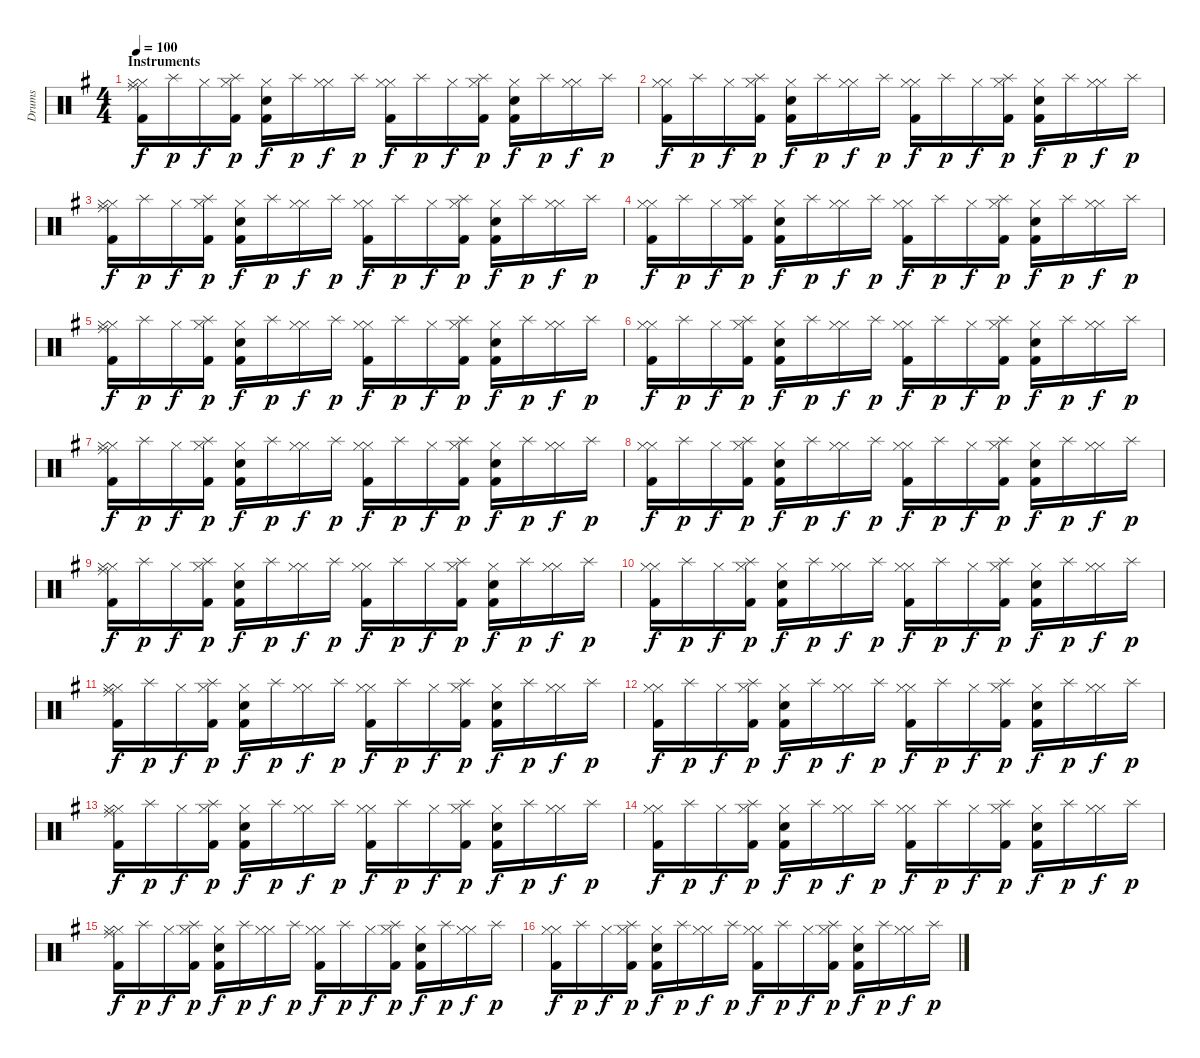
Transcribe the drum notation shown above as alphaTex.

\track ("Drums" "Drums") {instrument percussion}
\staff {score}
\articulation defaults
\ts (4 4)
\section ("" "Instruments")
\tempo 100
\clef neutral
\ks g
("Ride (middle)" "Hi-Hat (closed)" "Hi-Hat (closed)" "Kick (hit) 2").16{dy f} "Splash (hit)".16{dy p} "Hi-Hat (closed)".16{dy f} ("Splash (hit)" "Hi-Hat (closed)" "Kick (hit) 2").16{dy p} ("Electric Snare (hit)" "Hi-Hat (closed)" "Kick (hit) 2").16{dy f} "Splash (hit)".16{dy p} ("Hi-Hat (closed)" "Hi-Hat (closed)").16{dy f} "Splash (hit)".16{dy p} ("Hi-Hat (closed)" "Hi-Hat (closed)" "Kick (hit) 2").16{dy f} "Splash (hit)".16{dy p} "Hi-Hat (closed)".16{dy f} ("Splash (hit)" "Hi-Hat (closed)" "Kick (hit) 2").16{dy p} ("Electric Snare (hit)" "Hi-Hat (closed)" "Kick (hit) 2").16{dy f} "Splash (hit)".16{dy p} ("Hi-Hat (closed)" "Hi-Hat (closed)").16{dy f} "Splash (hit)".16{dy p} |
("Hi-Hat (closed)" "Hi-Hat (closed)" "Kick (hit) 2").16{dy f} "Splash (hit)".16{dy p} "Hi-Hat (closed)".16{dy f} ("Splash (hit)" "Hi-Hat (closed)" "Kick (hit) 2").16{dy p} ("Electric Snare (hit)" "Hi-Hat (closed)" "Kick (hit) 2").16{dy f} "Splash (hit)".16{dy p} ("Hi-Hat (closed)" "Hi-Hat (closed)").16{dy f} "Splash (hit)".16{dy p} ("Hi-Hat (closed)" "Hi-Hat (closed)" "Kick (hit) 2").16{dy f} "Splash (hit)".16{dy p} "Hi-Hat (closed)".16{dy f} ("Splash (hit)" "Hi-Hat (closed)" "Kick (hit) 2").16{dy p} ("Electric Snare (hit)" "Hi-Hat (closed)" "Kick (hit) 2").16{dy f} "Splash (hit)".16{dy p} ("Hi-Hat (closed)" "Hi-Hat (closed)").16{dy f} "Splash (hit)".16{dy p} |
("Ride (middle)" "Hi-Hat (closed)" "Hi-Hat (closed)" "Kick (hit) 2").16{dy f} "Splash (hit)".16{dy p} "Hi-Hat (closed)".16{dy f} ("Splash (hit)" "Hi-Hat (closed)" "Kick (hit) 2").16{dy p} ("Electric Snare (hit)" "Hi-Hat (closed)" "Kick (hit) 2").16{dy f} "Splash (hit)".16{dy p} ("Hi-Hat (closed)" "Hi-Hat (closed)").16{dy f} "Splash (hit)".16{dy p} ("Hi-Hat (closed)" "Hi-Hat (closed)" "Kick (hit) 2").16{dy f} "Splash (hit)".16{dy p} "Hi-Hat (closed)".16{dy f} ("Splash (hit)" "Hi-Hat (closed)" "Kick (hit) 2").16{dy p} ("Electric Snare (hit)" "Hi-Hat (closed)" "Kick (hit) 2").16{dy f} "Splash (hit)".16{dy p} ("Hi-Hat (closed)" "Hi-Hat (closed)").16{dy f} "Splash (hit)".16{dy p} |
("Hi-Hat (closed)" "Hi-Hat (closed)" "Kick (hit) 2").16{dy f} "Splash (hit)".16{dy p} "Hi-Hat (closed)".16{dy f} ("Splash (hit)" "Hi-Hat (closed)" "Kick (hit) 2").16{dy p} ("Electric Snare (hit)" "Hi-Hat (closed)" "Kick (hit) 2").16{dy f} "Splash (hit)".16{dy p} ("Hi-Hat (closed)" "Hi-Hat (closed)").16{dy f} "Splash (hit)".16{dy p} ("Hi-Hat (closed)" "Hi-Hat (closed)" "Kick (hit) 2").16{dy f} "Splash (hit)".16{dy p} "Hi-Hat (closed)".16{dy f} ("Splash (hit)" "Hi-Hat (closed)" "Kick (hit) 2").16{dy p} ("Electric Snare (hit)" "Hi-Hat (closed)" "Kick (hit) 2").16{dy f} "Splash (hit)".16{dy p} ("Hi-Hat (closed)" "Hi-Hat (closed)").16{dy f} "Splash (hit)".16{dy p} |
("Ride (middle)" "Hi-Hat (closed)" "Hi-Hat (closed)" "Kick (hit) 2").16{dy f} "Splash (hit)".16{dy p} "Hi-Hat (closed)".16{dy f} ("Splash (hit)" "Hi-Hat (closed)" "Kick (hit) 2").16{dy p} ("Electric Snare (hit)" "Hi-Hat (closed)" "Kick (hit) 2").16{dy f} "Splash (hit)".16{dy p} ("Hi-Hat (closed)" "Hi-Hat (closed)").16{dy f} "Splash (hit)".16{dy p} ("Hi-Hat (closed)" "Hi-Hat (closed)" "Kick (hit) 2").16{dy f} "Splash (hit)".16{dy p} "Hi-Hat (closed)".16{dy f} ("Splash (hit)" "Hi-Hat (closed)" "Kick (hit) 2").16{dy p} ("Electric Snare (hit)" "Hi-Hat (closed)" "Kick (hit) 2").16{dy f} "Splash (hit)".16{dy p} ("Hi-Hat (closed)" "Hi-Hat (closed)").16{dy f} "Splash (hit)".16{dy p} |
("Hi-Hat (closed)" "Hi-Hat (closed)" "Kick (hit) 2").16{dy f} "Splash (hit)".16{dy p} "Hi-Hat (closed)".16{dy f} ("Splash (hit)" "Hi-Hat (closed)" "Kick (hit) 2").16{dy p} ("Electric Snare (hit)" "Hi-Hat (closed)" "Kick (hit) 2").16{dy f} "Splash (hit)".16{dy p} ("Hi-Hat (closed)" "Hi-Hat (closed)").16{dy f} "Splash (hit)".16{dy p} ("Hi-Hat (closed)" "Hi-Hat (closed)" "Kick (hit) 2").16{dy f} "Splash (hit)".16{dy p} "Hi-Hat (closed)".16{dy f} ("Splash (hit)" "Hi-Hat (closed)" "Kick (hit) 2").16{dy p} ("Electric Snare (hit)" "Hi-Hat (closed)" "Kick (hit) 2").16{dy f} "Splash (hit)".16{dy p} ("Hi-Hat (closed)" "Hi-Hat (closed)").16{dy f} "Splash (hit)".16{dy p} |
("Ride (middle)" "Hi-Hat (closed)" "Hi-Hat (closed)" "Kick (hit) 2").16{dy f} "Splash (hit)".16{dy p} "Hi-Hat (closed)".16{dy f} ("Splash (hit)" "Hi-Hat (closed)" "Kick (hit) 2").16{dy p} ("Electric Snare (hit)" "Hi-Hat (closed)" "Kick (hit) 2").16{dy f} "Splash (hit)".16{dy p} ("Hi-Hat (closed)" "Hi-Hat (closed)").16{dy f} "Splash (hit)".16{dy p} ("Hi-Hat (closed)" "Hi-Hat (closed)" "Kick (hit) 2").16{dy f} "Splash (hit)".16{dy p} "Hi-Hat (closed)".16{dy f} ("Splash (hit)" "Hi-Hat (closed)" "Kick (hit) 2").16{dy p} ("Electric Snare (hit)" "Hi-Hat (closed)" "Kick (hit) 2").16{dy f} "Splash (hit)".16{dy p} ("Hi-Hat (closed)" "Hi-Hat (closed)").16{dy f} "Splash (hit)".16{dy p} |
("Hi-Hat (closed)" "Hi-Hat (closed)" "Kick (hit) 2").16{dy f} "Splash (hit)".16{dy p} "Hi-Hat (closed)".16{dy f} ("Splash (hit)" "Hi-Hat (closed)" "Kick (hit) 2").16{dy p} ("Electric Snare (hit)" "Hi-Hat (closed)" "Kick (hit) 2").16{dy f} "Splash (hit)".16{dy p} ("Hi-Hat (closed)" "Hi-Hat (closed)").16{dy f} "Splash (hit)".16{dy p} ("Hi-Hat (closed)" "Hi-Hat (closed)" "Kick (hit) 2").16{dy f} "Splash (hit)".16{dy p} "Hi-Hat (closed)".16{dy f} ("Splash (hit)" "Hi-Hat (closed)" "Kick (hit) 2").16{dy p} ("Electric Snare (hit)" "Hi-Hat (closed)" "Kick (hit) 2").16{dy f} "Splash (hit)".16{dy p} ("Hi-Hat (closed)" "Hi-Hat (closed)").16{dy f} "Splash (hit)".16{dy p} |
("Ride (middle)" "Hi-Hat (closed)" "Hi-Hat (closed)" "Kick (hit) 2").16{dy f} "Splash (hit)".16{dy p} "Hi-Hat (closed)".16{dy f} ("Splash (hit)" "Hi-Hat (closed)" "Kick (hit) 2").16{dy p} ("Electric Snare (hit)" "Hi-Hat (closed)" "Kick (hit) 2").16{dy f} "Splash (hit)".16{dy p} ("Hi-Hat (closed)" "Hi-Hat (closed)").16{dy f} "Splash (hit)".16{dy p} ("Hi-Hat (closed)" "Hi-Hat (closed)" "Kick (hit) 2").16{dy f} "Splash (hit)".16{dy p} "Hi-Hat (closed)".16{dy f} ("Splash (hit)" "Hi-Hat (closed)" "Kick (hit) 2").16{dy p} ("Electric Snare (hit)" "Hi-Hat (closed)" "Kick (hit) 2").16{dy f} "Splash (hit)".16{dy p} ("Hi-Hat (closed)" "Hi-Hat (closed)").16{dy f} "Splash (hit)".16{dy p} |
("Hi-Hat (closed)" "Hi-Hat (closed)" "Kick (hit) 2").16{dy f} "Splash (hit)".16{dy p} "Hi-Hat (closed)".16{dy f} ("Splash (hit)" "Hi-Hat (closed)" "Kick (hit) 2").16{dy p} ("Electric Snare (hit)" "Hi-Hat (closed)" "Kick (hit) 2").16{dy f} "Splash (hit)".16{dy p} ("Hi-Hat (closed)" "Hi-Hat (closed)").16{dy f} "Splash (hit)".16{dy p} ("Hi-Hat (closed)" "Hi-Hat (closed)" "Kick (hit) 2").16{dy f} "Splash (hit)".16{dy p} "Hi-Hat (closed)".16{dy f} ("Splash (hit)" "Hi-Hat (closed)" "Kick (hit) 2").16{dy p} ("Electric Snare (hit)" "Hi-Hat (closed)" "Kick (hit) 2").16{dy f} "Splash (hit)".16{dy p} ("Hi-Hat (closed)" "Hi-Hat (closed)").16{dy f} "Splash (hit)".16{dy p} |
("Ride (middle)" "Hi-Hat (closed)" "Hi-Hat (closed)" "Kick (hit) 2").16{dy f} "Splash (hit)".16{dy p} "Hi-Hat (closed)".16{dy f} ("Splash (hit)" "Hi-Hat (closed)" "Kick (hit) 2").16{dy p} ("Electric Snare (hit)" "Hi-Hat (closed)" "Kick (hit) 2").16{dy f} "Splash (hit)".16{dy p} ("Hi-Hat (closed)" "Hi-Hat (closed)").16{dy f} "Splash (hit)".16{dy p} ("Hi-Hat (closed)" "Hi-Hat (closed)" "Kick (hit) 2").16{dy f} "Splash (hit)".16{dy p} "Hi-Hat (closed)".16{dy f} ("Splash (hit)" "Hi-Hat (closed)" "Kick (hit) 2").16{dy p} ("Electric Snare (hit)" "Hi-Hat (closed)" "Kick (hit) 2").16{dy f} "Splash (hit)".16{dy p} ("Hi-Hat (closed)" "Hi-Hat (closed)").16{dy f} "Splash (hit)".16{dy p} |
("Hi-Hat (closed)" "Hi-Hat (closed)" "Kick (hit) 2").16{dy f} "Splash (hit)".16{dy p} "Hi-Hat (closed)".16{dy f} ("Splash (hit)" "Hi-Hat (closed)" "Kick (hit) 2").16{dy p} ("Electric Snare (hit)" "Hi-Hat (closed)" "Kick (hit) 2").16{dy f} "Splash (hit)".16{dy p} ("Hi-Hat (closed)" "Hi-Hat (closed)").16{dy f} "Splash (hit)".16{dy p} ("Hi-Hat (closed)" "Hi-Hat (closed)" "Kick (hit) 2").16{dy f} "Splash (hit)".16{dy p} "Hi-Hat (closed)".16{dy f} ("Splash (hit)" "Hi-Hat (closed)" "Kick (hit) 2").16{dy p} ("Electric Snare (hit)" "Hi-Hat (closed)" "Kick (hit) 2").16{dy f} "Splash (hit)".16{dy p} ("Hi-Hat (closed)" "Hi-Hat (closed)").16{dy f} "Splash (hit)".16{dy p} |
("Ride (middle)" "Hi-Hat (closed)" "Hi-Hat (closed)" "Kick (hit) 2").16{dy f} "Splash (hit)".16{dy p} "Hi-Hat (closed)".16{dy f} ("Splash (hit)" "Hi-Hat (closed)" "Kick (hit) 2").16{dy p} ("Electric Snare (hit)" "Hi-Hat (closed)" "Kick (hit) 2").16{dy f} "Splash (hit)".16{dy p} ("Hi-Hat (closed)" "Hi-Hat (closed)").16{dy f} "Splash (hit)".16{dy p} ("Hi-Hat (closed)" "Hi-Hat (closed)" "Kick (hit) 2").16{dy f} "Splash (hit)".16{dy p} "Hi-Hat (closed)".16{dy f} ("Splash (hit)" "Hi-Hat (closed)" "Kick (hit) 2").16{dy p} ("Electric Snare (hit)" "Hi-Hat (closed)" "Kick (hit) 2").16{dy f} "Splash (hit)".16{dy p} ("Hi-Hat (closed)" "Hi-Hat (closed)").16{dy f} "Splash (hit)".16{dy p} |
("Hi-Hat (closed)" "Hi-Hat (closed)" "Kick (hit) 2").16{dy f} "Splash (hit)".16{dy p} "Hi-Hat (closed)".16{dy f} ("Splash (hit)" "Hi-Hat (closed)" "Kick (hit) 2").16{dy p} ("Electric Snare (hit)" "Hi-Hat (closed)" "Kick (hit) 2").16{dy f} "Splash (hit)".16{dy p} ("Hi-Hat (closed)" "Hi-Hat (closed)").16{dy f} "Splash (hit)".16{dy p} ("Hi-Hat (closed)" "Hi-Hat (closed)" "Kick (hit) 2").16{dy f} "Splash (hit)".16{dy p} "Hi-Hat (closed)".16{dy f} ("Splash (hit)" "Hi-Hat (closed)" "Kick (hit) 2").16{dy p} ("Electric Snare (hit)" "Hi-Hat (closed)" "Kick (hit) 2").16{dy f} "Splash (hit)".16{dy p} ("Hi-Hat (closed)" "Hi-Hat (closed)").16{dy f} "Splash (hit)".16{dy p} |
("Ride (middle)" "Hi-Hat (closed)" "Hi-Hat (closed)" "Kick (hit) 2").16{dy f} "Splash (hit)".16{dy p} "Hi-Hat (closed)".16{dy f} ("Splash (hit)" "Hi-Hat (closed)" "Kick (hit) 2").16{dy p} ("Electric Snare (hit)" "Hi-Hat (closed)" "Kick (hit) 2").16{dy f} "Splash (hit)".16{dy p} ("Hi-Hat (closed)" "Hi-Hat (closed)").16{dy f} "Splash (hit)".16{dy p} ("Hi-Hat (closed)" "Hi-Hat (closed)" "Kick (hit) 2").16{dy f} "Splash (hit)".16{dy p} "Hi-Hat (closed)".16{dy f} ("Splash (hit)" "Hi-Hat (closed)" "Kick (hit) 2").16{dy p} ("Electric Snare (hit)" "Hi-Hat (closed)" "Kick (hit) 2").16{dy f} "Splash (hit)".16{dy p} ("Hi-Hat (closed)" "Hi-Hat (closed)").16{dy f} "Splash (hit)".16{dy p} |
("Hi-Hat (closed)" "Hi-Hat (closed)" "Kick (hit) 2").16{dy f} "Splash (hit)".16{dy p} "Hi-Hat (closed)".16{dy f} ("Splash (hit)" "Hi-Hat (closed)" "Kick (hit) 2").16{dy p} ("Electric Snare (hit)" "Hi-Hat (closed)" "Kick (hit) 2").16{dy f} "Splash (hit)".16{dy p} ("Hi-Hat (closed)" "Hi-Hat (closed)").16{dy f} "Splash (hit)".16{dy p} ("Hi-Hat (closed)" "Hi-Hat (closed)" "Kick (hit) 2").16{dy f} "Splash (hit)".16{dy p} "Hi-Hat (closed)".16{dy f} ("Splash (hit)" "Hi-Hat (closed)" "Kick (hit) 2").16{dy p} ("Electric Snare (hit)" "Hi-Hat (closed)" "Kick (hit) 2").16{dy f} "Splash (hit)".16{dy p} ("Hi-Hat (closed)" "Hi-Hat (closed)").16{dy f} "Splash (hit)".16{dy p}
